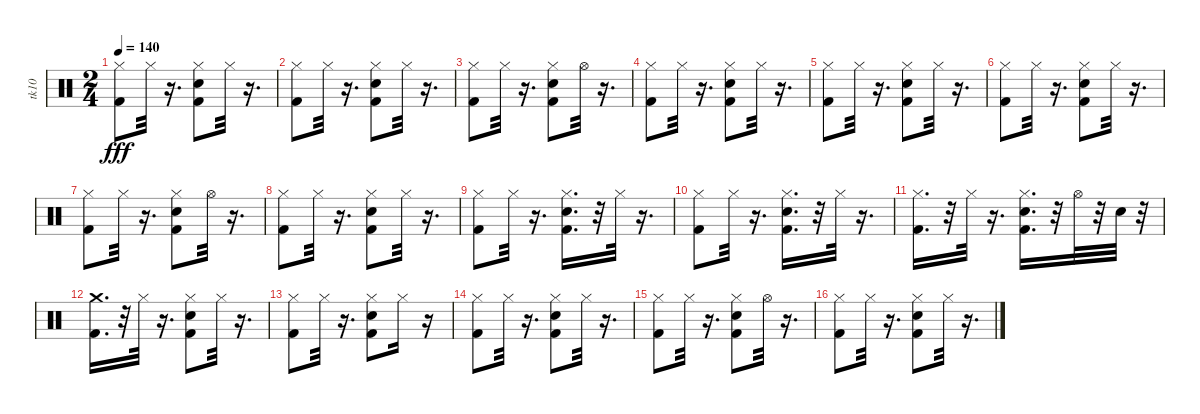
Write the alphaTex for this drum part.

\track ("tk10" "tk10") {instrument percussion}
\staff {score}
\articulation defaults
\ts (2 4)
\tempo 140
\clef neutral
\ks c
("Kick (hit) 2" "Hi-Hat (closed)").8{dy fff} "Hi-Hat (closed)".32 r.16{d} ("Snare (hit) 2" "Kick (hit) 2" "Hi-Hat (closed)").8 "Hi-Hat (closed)".32 r.16{d} |
("Kick (hit) 2" "Hi-Hat (closed)").8 "Hi-Hat (closed)".32 r.16{d} ("Kick (hit) 2" "Hi-Hat (closed)" "Snare (hit) 2").8 "Hi-Hat (closed)".32 r.16{d} |
("Kick (hit) 2" "Hi-Hat (closed)").8 "Hi-Hat (closed)".32 r.16{d} ("Snare (hit) 2" "Kick (hit) 2" "Hi-Hat (closed)").8 "Hi-Hat (open)".32 r.16{d} |
("Kick (hit) 2" "Hi-Hat (closed)").8 "Hi-Hat (closed)".32 r.16{d} ("Snare (hit) 2" "Kick (hit) 2" "Hi-Hat (closed)").8 "Hi-Hat (closed)".32 r.16{d} |
("Kick (hit) 2" "Hi-Hat (closed)").8 "Hi-Hat (closed)".32 r.16{d} ("Snare (hit) 2" "Kick (hit) 2" "Hi-Hat (closed)").8 "Hi-Hat (closed)".32 r.16{d} |
("Kick (hit) 2" "Hi-Hat (closed)").8 "Hi-Hat (closed)".32 r.16{d} ("Snare (hit) 2" "Kick (hit) 2" "Hi-Hat (closed)").8 "Hi-Hat (closed)".32 r.16{d} |
("Kick (hit) 2" "Hi-Hat (closed)").8 "Hi-Hat (closed)".32 r.16{d} ("Snare (hit) 2" "Kick (hit) 2" "Hi-Hat (closed)").8 "Hi-Hat (open)".32 r.16{d} |
("Kick (hit) 2" "Hi-Hat (closed)").8 "Hi-Hat (closed)".32 r.16{d} ("Snare (hit) 2" "Kick (hit) 2" "Hi-Hat (closed)").8 "Hi-Hat (closed)".32 r.16{d} |
("Kick (hit) 2" "Hi-Hat (closed)").8 "Hi-Hat (closed)".32 r.16{d} ("Snare (hit) 2" "Kick (hit) 2" "Hi-Hat (closed)").16{d} r.32 "Hi-Hat (closed)".32 r.16{d} |
("Kick (hit) 2" "Hi-Hat (closed)").8 "Hi-Hat (closed)".32 r.16{d} ("Snare (hit) 2" "Kick (hit) 2" "Hi-Hat (closed)").16{d} r.32 "Hi-Hat (closed)".32 r.16{d} |
("Kick (hit) 2" "Hi-Hat (closed)").16{d} r.32 "Hi-Hat (closed)".32 r.16{d} ("Snare (hit) 2" "Kick (hit) 2" "Hi-Hat (closed)").16{d} r.32 "Hi-Hat (open)".32 r.32 "Snare (hit) 2".32 r.32 |
("Kick (hit) 2" "Crash medium (hit)").16{d} r.32 "Hi-Hat (closed)".32 r.16{d} ("Snare (hit) 2" "Hi-Hat (closed)" "Kick (hit) 2").8 "Hi-Hat (closed)".32 r.16{d} |
("Kick (hit) 2" "Hi-Hat (closed)").8 "Hi-Hat (closed)".32 r.16{d} ("Snare (hit) 2" "Kick (hit) 2" "Hi-Hat (closed)").8 "Hi-Hat (closed)".16 r.16 |
("Kick (hit) 2" "Hi-Hat (closed)").8 "Hi-Hat (closed)".32 r.16{d} ("Snare (hit) 2" "Kick (hit) 2" "Hi-Hat (closed)").8 "Hi-Hat (closed)".32 r.16{d} |
("Kick (hit) 2" "Hi-Hat (closed)").8 "Hi-Hat (closed)".32 r.16{d} ("Hi-Hat (closed)" "Kick (hit) 2" "Snare (hit) 2").8 "Hi-Hat (open)".32 r.16{d} |
("Kick (hit) 2" "Hi-Hat (closed)").8 "Hi-Hat (closed)".32 r.16{d} ("Snare (hit) 2" "Kick (hit) 2" "Hi-Hat (closed)").8 "Hi-Hat (closed)".32 r.16{d}
